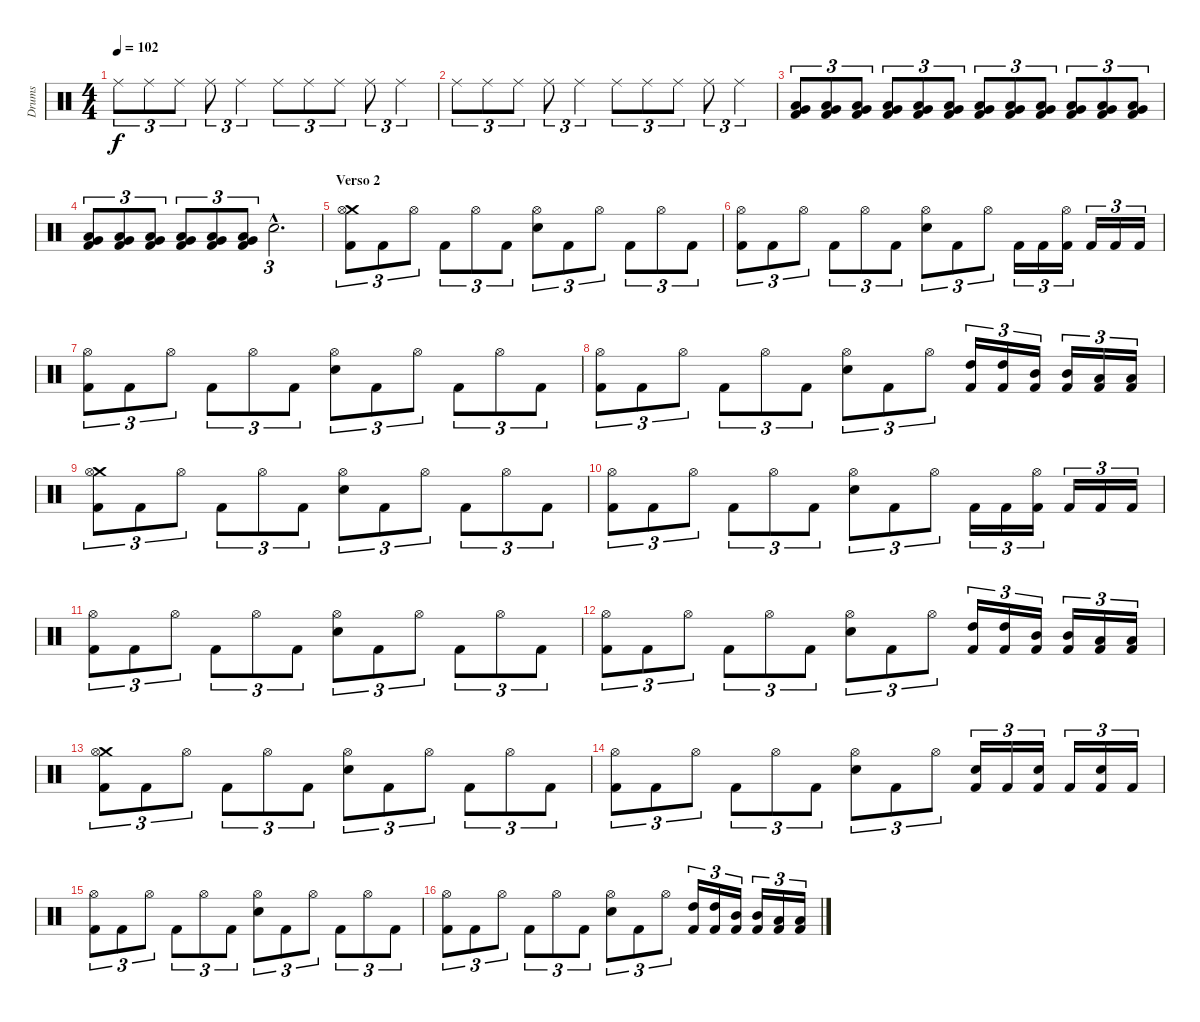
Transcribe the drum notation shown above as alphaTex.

\track ("Drums" "Drums") {instrument percussion}
\staff {score}
\articulation defaults
\ts (4 4)
\tempo 102
\clef neutral
\ks c "Ride (middle)".8{tu (3 2) dy f} "Ride (middle)".8{tu (3 2)} "Ride (middle)".8{tu (3 2)} "Ride (middle)".8{tu (3 2)} "Ride (middle)".4{tu (3 2)} "Ride (middle)".8{tu (3 2)} "Ride (middle)".8{tu (3 2)} "Ride (middle)".8{tu (3 2)} "Ride (middle)".8{tu (3 2)} "Ride (middle)".4{tu (3 2)}
|
"Ride (middle)".8{tu (3 2)} "Ride (middle)".8{tu (3 2)} "Ride (middle)".8{tu (3 2)} "Ride (middle)".8{tu (3 2)} "Ride (middle)".4{tu (3 2)} "Ride (middle)".8{tu (3 2)} "Ride (middle)".8{tu (3 2)} "Ride (middle)".8{tu (3 2)} "Ride (middle)".8{tu (3 2)} "Ride (middle)".4{tu (3 2)} |
("Very Low Tom (hit)" "Low Floor Tom (hit)" "Kick (hit) 2").8{tu (3 2)} ("Very Low Tom (hit)" "Low Floor Tom (hit)" "Kick (hit) 2").8{tu (3 2)} ("Very Low Tom (hit)" "Low Floor Tom (hit)" "Kick (hit) 2").8{tu (3 2)} ("Very Low Tom (hit)" "Low Floor Tom (hit)" "Kick (hit) 2").8{tu (3 2)} ("Very Low Tom (hit)" "Low Floor Tom (hit)" "Kick (hit) 2").8{tu (3 2)} ("Very Low Tom (hit)" "Low Floor Tom (hit)" "Kick (hit) 2").8{tu (3 2)} ("Very Low Tom (hit)" "Low Floor Tom (hit)" "Kick (hit) 2").8{tu (3 2)} ("Very Low Tom (hit)" "Low Floor Tom (hit)" "Kick (hit) 2").8{tu (3 2)} ("Very Low Tom (hit)" "Low Floor Tom (hit)" "Kick (hit) 2").8{tu (3 2)} ("Very Low Tom (hit)" "Low Floor Tom (hit)" "Kick (hit) 2").8{tu (3 2)} ("Very Low Tom (hit)" "Low Floor Tom (hit)" "Kick (hit) 2").8{tu (3 2)} ("Very Low Tom (hit)" "Low Floor Tom (hit)" "Kick (hit) 2").8{tu (3 2)} |
("Very Low Tom (hit)" "Low Floor Tom (hit)" "Kick (hit) 2").8{tu (3 2)} ("Very Low Tom (hit)" "Low Floor Tom (hit)" "Kick (hit) 2").8{tu (3 2)} ("Very Low Tom (hit)" "Low Floor Tom (hit)" "Kick (hit) 2").8{tu (3 2)} ("Very Low Tom (hit)" "Low Floor Tom (hit)" "Kick (hit) 2").8{tu (3 2)} ("Very Low Tom (hit)" "Low Floor Tom (hit)" "Kick (hit) 2").8{tu (3 2)} ("Very Low Tom (hit)" "Low Floor Tom (hit)" "Kick (hit) 2").8{tu (3 2)} "Snare (hit) 2"{hac}.2{d tu (3 2)} |
\section ("" "Verso 2")
("Crash medium (hit)" "Hi-Hat (open)" "Kick (hit) 2").8{tu (3 2)} "Kick (hit) 2".8{tu (3 2)} "Hi-Hat (open)".8{tu (3 2)} "Kick (hit) 2".8{tu (3 2)} "Hi-Hat (open)".8{tu (3 2)} "Kick (hit) 2".8{tu (3 2)} ("Hi-Hat (open)" "Snare (hit) 2").8{tu (3 2)} "Kick (hit) 2".8{tu (3 2)} "Hi-Hat (open)".8{tu (3 2)} "Kick (hit) 2".8{tu (3 2)} "Hi-Hat (open)".8{tu (3 2)} "Kick (hit) 2".8{tu (3 2)} |
("Hi-Hat (open)" "Kick (hit) 2").8{tu (3 2)} "Kick (hit) 2".8{tu (3 2)} "Hi-Hat (open)".8{tu (3 2)} "Kick (hit) 2".8{tu (3 2)} "Hi-Hat (open)".8{tu (3 2)} "Kick (hit) 2".8{tu (3 2)} ("Hi-Hat (open)" "Snare (hit) 2").8{tu (3 2)} "Kick (hit) 2".8{tu (3 2)} "Hi-Hat (open)".8{tu (3 2)} "Kick (hit) 2".16{tu (3 2)} "Kick (hit) 2".16{tu (3 2)} ("Hi-Hat (open)" "Kick (hit) 2").16{tu (3 2)} "Kick (hit) 2".16{tu (3 2)} "Kick (hit) 2".16{tu (3 2)} "Kick (hit) 2".16{tu (3 2)} |
("Hi-Hat (open)" "Kick (hit) 2").8{tu (3 2)} "Kick (hit) 2".8{tu (3 2)} "Hi-Hat (open)".8{tu (3 2)} "Kick (hit) 2".8{tu (3 2)} "Hi-Hat (open)".8{tu (3 2)} "Kick (hit) 2".8{tu (3 2)} ("Hi-Hat (open)" "Snare (hit) 2").8{tu (3 2)} "Kick (hit) 2".8{tu (3 2)} "Hi-Hat (open)".8{tu (3 2)} "Kick (hit) 2".8{tu (3 2)} "Hi-Hat (open)".8{tu (3 2)} "Kick (hit) 2".8{tu (3 2)} |
("Hi-Hat (open)" "Kick (hit) 2").8{tu (3 2)} "Kick (hit) 2".8{tu (3 2)} "Hi-Hat (open)".8{tu (3 2)} "Kick (hit) 2".8{tu (3 2)} "Hi-Hat (open)".8{tu (3 2)} "Kick (hit) 2".8{tu (3 2)} ("Hi-Hat (open)" "Snare (hit) 2").8{tu (3 2)} "Kick (hit) 2".8{tu (3 2)} "Hi-Hat (open)".8{tu (3 2)} ("High Tom (hit)" "Kick (hit) 2").16{tu (3 2)} ("High Tom (hit)" "Kick (hit) 2").16{tu (3 2)} ("Mid Tom (hit)" "Kick (hit) 2").16{tu (3 2)} ("Mid Tom (hit)" "Kick (hit) 2").16{tu (3 2)} ("Low Tom (hit)" "Kick (hit) 2").16{tu (3 2)} ("Low Tom (hit)" "Kick (hit) 2").16{tu (3 2)} |
("Crash medium (hit)" "Hi-Hat (open)" "Kick (hit) 2").8{tu (3 2)} "Kick (hit) 2".8{tu (3 2)} "Hi-Hat (open)".8{tu (3 2)} "Kick (hit) 2".8{tu (3 2)} "Hi-Hat (open)".8{tu (3 2)} "Kick (hit) 2".8{tu (3 2)} ("Hi-Hat (open)" "Snare (hit) 2").8{tu (3 2)} "Kick (hit) 2".8{tu (3 2)} "Hi-Hat (open)".8{tu (3 2)} "Kick (hit) 2".8{tu (3 2)} "Hi-Hat (open)".8{tu (3 2)} "Kick (hit) 2".8{tu (3 2)} |
("Hi-Hat (open)" "Kick (hit) 2").8{tu (3 2)} "Kick (hit) 2".8{tu (3 2)} "Hi-Hat (open)".8{tu (3 2)} "Kick (hit) 2".8{tu (3 2)} "Hi-Hat (open)".8{tu (3 2)} "Kick (hit) 2".8{tu (3 2)} ("Hi-Hat (open)" "Snare (hit) 2").8{tu (3 2)} "Kick (hit) 2".8{tu (3 2)} "Hi-Hat (open)".8{tu (3 2)} "Kick (hit) 2".16{tu (3 2)} "Kick (hit) 2".16{tu (3 2)} ("Hi-Hat (open)" "Kick (hit) 2").16{tu (3 2)} "Kick (hit) 2".16{tu (3 2)} "Kick (hit) 2".16{tu (3 2)} "Kick (hit) 2".16{tu (3 2)} |
("Hi-Hat (open)" "Kick (hit) 2").8{tu (3 2)} "Kick (hit) 2".8{tu (3 2)} "Hi-Hat (open)".8{tu (3 2)} "Kick (hit) 2".8{tu (3 2)} "Hi-Hat (open)".8{tu (3 2)} "Kick (hit) 2".8{tu (3 2)} ("Hi-Hat (open)" "Snare (hit) 2").8{tu (3 2)} "Kick (hit) 2".8{tu (3 2)} "Hi-Hat (open)".8{tu (3 2)} "Kick (hit) 2".8{tu (3 2)} "Hi-Hat (open)".8{tu (3 2)} "Kick (hit) 2".8{tu (3 2)} |
("Hi-Hat (open)" "Kick (hit) 2").8{tu (3 2)} "Kick (hit) 2".8{tu (3 2)} "Hi-Hat (open)".8{tu (3 2)} "Kick (hit) 2".8{tu (3 2)} "Hi-Hat (open)".8{tu (3 2)} "Kick (hit) 2".8{tu (3 2)} ("Hi-Hat (open)" "Snare (hit) 2").8{tu (3 2)} "Kick (hit) 2".8{tu (3 2)} "Hi-Hat (open)".8{tu (3 2)} ("High Tom (hit)" "Kick (hit) 2").16{tu (3 2)} ("High Tom (hit)" "Kick (hit) 2").16{tu (3 2)} ("Mid Tom (hit)" "Kick (hit) 2").16{tu (3 2)} ("Mid Tom (hit)" "Kick (hit) 2").16{tu (3 2)} ("Low Tom (hit)" "Kick (hit) 2").16{tu (3 2)} ("Low Tom (hit)" "Kick (hit) 2").16{tu (3 2)} |
("Crash medium (hit)" "Hi-Hat (open)" "Kick (hit) 2").8{tu (3 2)} "Kick (hit) 2".8{tu (3 2)} "Hi-Hat (open)".8{tu (3 2)} "Kick (hit) 2".8{tu (3 2)} "Hi-Hat (open)".8{tu (3 2)} "Kick (hit) 2".8{tu (3 2)} ("Hi-Hat (open)" "Snare (hit) 2").8{tu (3 2)} "Kick (hit) 2".8{tu (3 2)} "Hi-Hat (open)".8{tu (3 2)} "Kick (hit) 2".8{tu (3 2)} "Hi-Hat (open)".8{tu (3 2)} "Kick (hit) 2".8{tu (3 2)} |
("Hi-Hat (open)" "Kick (hit) 2").8{tu (3 2)} "Kick (hit) 2".8{tu (3 2)} "Hi-Hat (open)".8{tu (3 2)} "Kick (hit) 2".8{tu (3 2)} "Hi-Hat (open)".8{tu (3 2)} "Kick (hit) 2".8{tu (3 2)} ("Hi-Hat (open)" "Snare (hit) 2").8{tu (3 2)} "Kick (hit) 2".8{tu (3 2)} "Hi-Hat (open)".8{tu (3 2)} ("Snare (hit) 2" "Kick (hit) 2").16{tu (3 2)} "Kick (hit) 2".16{tu (3 2)} ("Snare (hit) 2" "Kick (hit) 2").16{tu (3 2)} "Kick (hit) 2".16{tu (3 2)} ("Snare (hit) 2" "Kick (hit) 2").16{tu (3 2)} "Kick (hit) 2".16{tu (3 2)} |
("Hi-Hat (open)" "Kick (hit) 2").8{tu (3 2)} "Kick (hit) 2".8{tu (3 2)} "Hi-Hat (open)".8{tu (3 2)} "Kick (hit) 2".8{tu (3 2)} "Hi-Hat (open)".8{tu (3 2)} "Kick (hit) 2".8{tu (3 2)} ("Hi-Hat (open)" "Snare (hit) 2").8{tu (3 2)} "Kick (hit) 2".8{tu (3 2)} "Hi-Hat (open)".8{tu (3 2)} "Kick (hit) 2".8{tu (3 2)} "Hi-Hat (open)".8{tu (3 2)} "Kick (hit) 2".8{tu (3 2)} |
("Hi-Hat (open)" "Kick (hit) 2").8{tu (3 2)} "Kick (hit) 2".8{tu (3 2)} "Hi-Hat (open)".8{tu (3 2)} "Kick (hit) 2".8{tu (3 2)} "Hi-Hat (open)".8{tu (3 2)} "Kick (hit) 2".8{tu (3 2)} ("Hi-Hat (open)" "Snare (hit) 2").8{tu (3 2)} "Kick (hit) 2".8{tu (3 2)} "Hi-Hat (open)".8{tu (3 2)} ("High Tom (hit)" "Kick (hit) 2").16{tu (3 2)} ("High Tom (hit)" "Kick (hit) 2").16{tu (3 2)} ("Mid Tom (hit)" "Kick (hit) 2").16{tu (3 2)} ("Mid Tom (hit)" "Kick (hit) 2").16{tu (3 2)} ("Low Tom (hit)" "Kick (hit) 2").16{tu (3 2)} ("Low Tom (hit)" "Kick (hit) 2").16{tu (3 2)}
